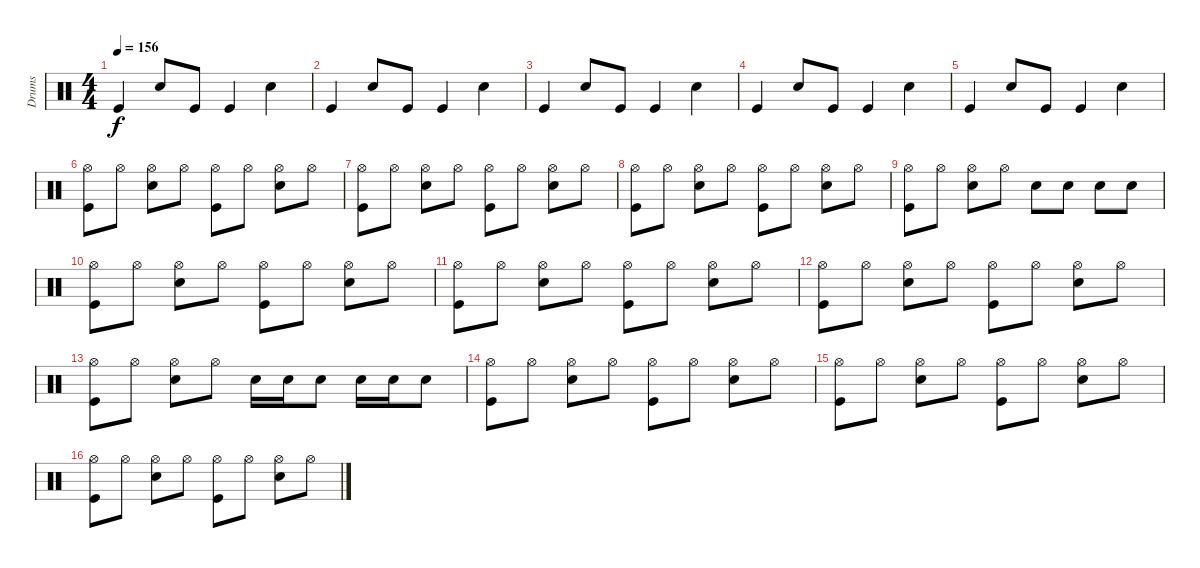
\track ("Drums" "Drums") {instrument percussion}
\staff {score}
\articulation defaults
\ts (4 4)
\tempo 156
\clef neutral
\ks c "Kick (hit)".4{dy f} "Snare (hit) 2".8 "Kick (hit)".8 "Kick (hit)".4 "Snare (hit) 2".4
|
"Kick (hit)".4 "Snare (hit) 2".8 "Kick (hit)".8 "Kick (hit)".4 "Snare (hit) 2".4 |
"Kick (hit)".4 "Snare (hit) 2".8 "Kick (hit)".8 "Kick (hit)".4 "Snare (hit) 2".4 |
"Kick (hit)".4 "Snare (hit) 2".8 "Kick (hit)".8 "Kick (hit)".4 "Snare (hit) 2".4 |
"Kick (hit)".4 "Snare (hit) 2".8 "Kick (hit)".8 "Kick (hit)".4 "Snare (hit) 2".4 |
("Hi-Hat (open)" "Kick (hit)").8 "Hi-Hat (open)".8 ("Hi-Hat (open)" "Electric Snare (hit)").8 "Hi-Hat (open)".8 ("Hi-Hat (open)" "Kick (hit)").8 "Hi-Hat (open)".8 ("Hi-Hat (open)" "Electric Snare (hit)").8 "Hi-Hat (open)".8 |
("Hi-Hat (open)" "Kick (hit)").8 "Hi-Hat (open)".8 ("Hi-Hat (open)" "Electric Snare (hit)").8 "Hi-Hat (open)".8 ("Hi-Hat (open)" "Kick (hit)").8 "Hi-Hat (open)".8 ("Hi-Hat (open)" "Electric Snare (hit)").8 "Hi-Hat (open)".8 |
("Hi-Hat (open)" "Kick (hit)").8 "Hi-Hat (open)".8 ("Hi-Hat (open)" "Electric Snare (hit)").8 "Hi-Hat (open)".8 ("Hi-Hat (open)" "Kick (hit)").8 "Hi-Hat (open)".8 ("Hi-Hat (open)" "Electric Snare (hit)").8 "Hi-Hat (open)".8 |
("Hi-Hat (open)" "Kick (hit)").8 "Hi-Hat (open)".8 ("Hi-Hat (open)" "Electric Snare (hit)").8 "Hi-Hat (open)".8 "Electric Snare (hit)".8 "Electric Snare (hit)".8 "Electric Snare (hit)".8 "Electric Snare (hit)".8 |
("Hi-Hat (open)" "Kick (hit)").8 "Hi-Hat (open)".8 ("Hi-Hat (open)" "Electric Snare (hit)").8 "Hi-Hat (open)".8 ("Hi-Hat (open)" "Kick (hit)").8 "Hi-Hat (open)".8 ("Hi-Hat (open)" "Electric Snare (hit)").8 "Hi-Hat (open)".8 |
("Hi-Hat (open)" "Kick (hit)").8 "Hi-Hat (open)".8 ("Hi-Hat (open)" "Electric Snare (hit)").8 "Hi-Hat (open)".8 ("Hi-Hat (open)" "Kick (hit)").8 "Hi-Hat (open)".8 ("Hi-Hat (open)" "Electric Snare (hit)").8 "Hi-Hat (open)".8 |
("Hi-Hat (open)" "Kick (hit)").8 "Hi-Hat (open)".8 ("Hi-Hat (open)" "Electric Snare (hit)").8 "Hi-Hat (open)".8 ("Hi-Hat (open)" "Kick (hit)").8 "Hi-Hat (open)".8 ("Hi-Hat (open)" "Electric Snare (hit)").8 "Hi-Hat (open)".8 |
("Hi-Hat (open)" "Kick (hit)").8 "Hi-Hat (open)".8 ("Hi-Hat (open)" "Electric Snare (hit)").8 "Hi-Hat (open)".8 "Electric Snare (hit)".16 "Electric Snare (hit)".16 "Electric Snare (hit)".8 "Electric Snare (hit)".16 "Electric Snare (hit)".16 "Electric Snare (hit)".8 |
("Hi-Hat (open)" "Kick (hit)").8 "Hi-Hat (open)".8 ("Hi-Hat (open)" "Electric Snare (hit)").8 "Hi-Hat (open)".8 ("Hi-Hat (open)" "Kick (hit)").8 "Hi-Hat (open)".8 ("Hi-Hat (open)" "Electric Snare (hit)").8 "Hi-Hat (open)".8 |
("Hi-Hat (open)" "Kick (hit)").8 "Hi-Hat (open)".8 ("Hi-Hat (open)" "Electric Snare (hit)").8 "Hi-Hat (open)".8 ("Hi-Hat (open)" "Kick (hit)").8 "Hi-Hat (open)".8 ("Hi-Hat (open)" "Electric Snare (hit)").8 "Hi-Hat (open)".8 |
("Hi-Hat (open)" "Kick (hit)").8 "Hi-Hat (open)".8 ("Hi-Hat (open)" "Electric Snare (hit)").8 "Hi-Hat (open)".8 ("Hi-Hat (open)" "Kick (hit)").8 "Hi-Hat (open)".8 ("Hi-Hat (open)" "Electric Snare (hit)").8 "Hi-Hat (open)".8
